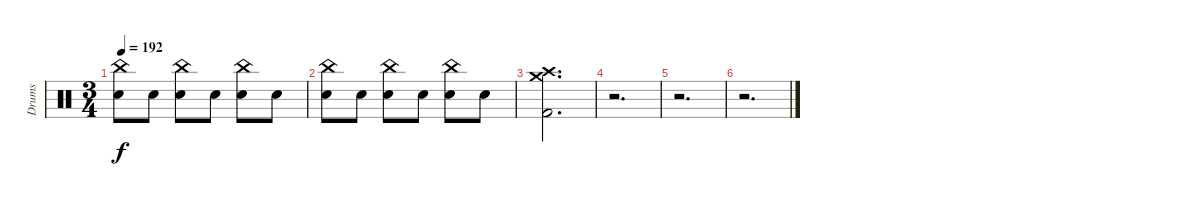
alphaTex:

\track ("Drums" "Drums") {instrument percussion}
\staff {score}
\articulation defaults
\ts (3 4)
\tempo 192
\clef neutral
\ks c
("China (hit)" "Electric Snare (hit)").8{dy f} "Electric Snare (hit)".8 ("China (hit)" "Electric Snare (hit)").8 "Electric Snare (hit)".8 ("China (hit)" "Electric Snare (hit)").8 "Electric Snare (hit)".8 |
("China (hit)" "Electric Snare (hit)").8 "Electric Snare (hit)".8 ("China (hit)" "Electric Snare (hit)").8 "Electric Snare (hit)".8 ("China (hit)" "Electric Snare (hit)").8 "Electric Snare (hit)".8 |
("Crash medium (hit)" "Crash high (hit)" "Kick (hit) 2").2{d} |
r.2{d} |
r.2{d} |
r.2{d}
